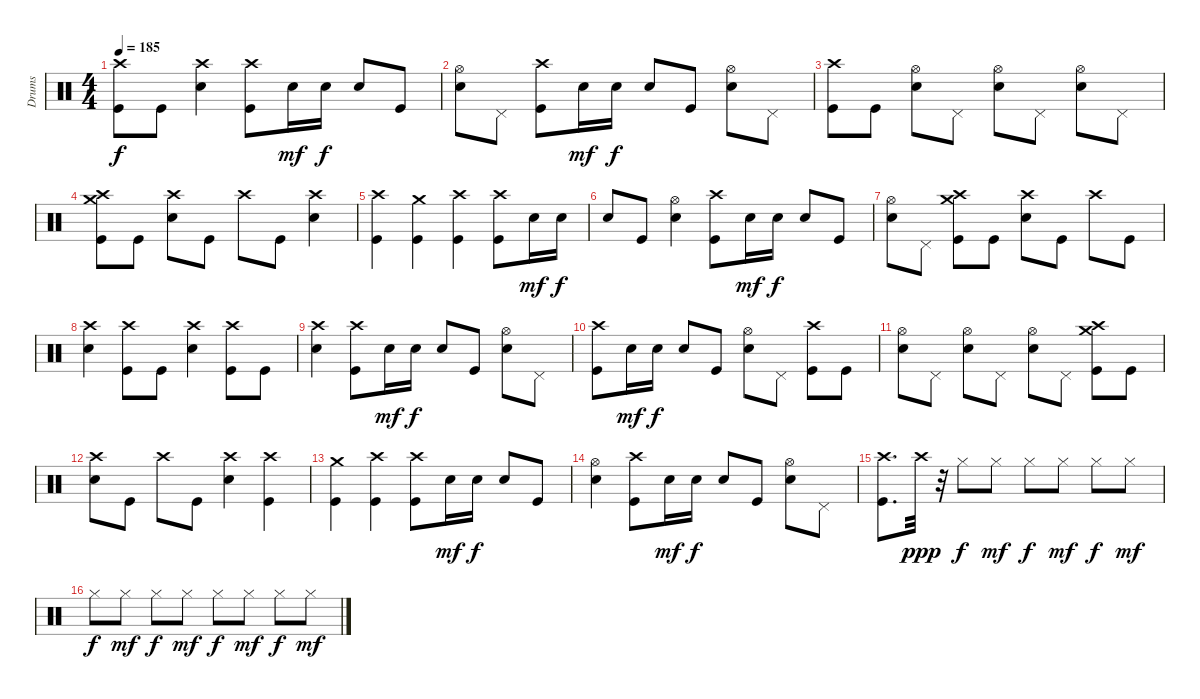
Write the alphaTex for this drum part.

\track ("Drums" "Drums") {instrument percussion}
\staff {score}
\articulation defaults
\ts (4 4)
\tempo 185
\clef neutral
\ks c
("Kick (hit)" "Crash high (hit)").8{dy f} "Kick (hit)".8 ("Electric Snare (hit)" "Crash high (hit)").4 ("Kick (hit)" "Crash high (hit)").8 "Electric Snare (hit)".16{dy mf} "Electric Snare (hit)".16{dy f} "Electric Snare (hit)".8 "Kick (hit)".8 |
("Electric Snare (hit)" "Hi-Hat (open)").8 "Pedal Hi-Hat (hit)".8 ("Kick (hit)" "Crash high (hit)").8 "Electric Snare (hit)".16{dy mf} "Electric Snare (hit)".16{dy f} "Electric Snare (hit)".8 "Kick (hit)".8 ("Electric Snare (hit)" "Hi-Hat (open)").8 "Pedal Hi-Hat (hit)".8 |
("Kick (hit)" "Crash high (hit)").8 "Kick (hit)".8 ("Electric Snare (hit)" "Hi-Hat (open)").8 "Pedal Hi-Hat (hit)".8 ("Electric Snare (hit)" "Hi-Hat (open)").8 "Pedal Hi-Hat (hit)".8 ("Electric Snare (hit)" "Hi-Hat (open)").8 "Pedal Hi-Hat (hit)".8 |
("Kick (hit)" "Crash high (hit)" "Crash medium (hit)").8 "Kick (hit)".8 ("Electric Snare (hit)" "Crash high (hit)").8 "Kick (hit)".8 "Crash high (hit)".8 "Kick (hit)".8 ("Electric Snare (hit)" "Crash high (hit)").4 |
("Kick (hit)" "Crash high (hit)").4 ("Kick (hit)" "Crash medium (hit)").4 ("Kick (hit)" "Crash high (hit)").4 ("Kick (hit)" "Crash high (hit)").8 "Electric Snare (hit)".16{dy mf} "Electric Snare (hit)".16{dy f} |
"Electric Snare (hit)".8 "Kick (hit)".8 ("Electric Snare (hit)" "Hi-Hat (open)").4 ("Kick (hit)" "Crash high (hit)").8 "Electric Snare (hit)".16{dy mf} "Electric Snare (hit)".16{dy f} "Electric Snare (hit)".8 "Kick (hit)".8 |
("Electric Snare (hit)" "Hi-Hat (open)").8 "Pedal Hi-Hat (hit)".8 ("Kick (hit)" "Crash high (hit)" "Crash medium (hit)").8 "Kick (hit)".8 ("Electric Snare (hit)" "Crash high (hit)").8 "Kick (hit)".8 "Crash high (hit)".8 "Kick (hit)".8 |
("Electric Snare (hit)" "Crash high (hit)").4 ("Kick (hit)" "Crash high (hit)").8 "Kick (hit)".8 ("Electric Snare (hit)" "Crash high (hit)").4 ("Kick (hit)" "Crash high (hit)").8 "Kick (hit)".8 |
("Electric Snare (hit)" "Crash high (hit)").4 ("Kick (hit)" "Crash high (hit)").8 "Electric Snare (hit)".16{dy mf} "Electric Snare (hit)".16{dy f} "Electric Snare (hit)".8 "Kick (hit)".8 ("Electric Snare (hit)" "Hi-Hat (open)").8 "Pedal Hi-Hat (hit)".8 |
("Kick (hit)" "Crash high (hit)").8 "Electric Snare (hit)".16{dy mf} "Electric Snare (hit)".16{dy f} "Electric Snare (hit)".8 "Kick (hit)".8 ("Electric Snare (hit)" "Hi-Hat (open)").8 "Pedal Hi-Hat (hit)".8 ("Kick (hit)" "Crash high (hit)").8 "Kick (hit)".8 |
("Electric Snare (hit)" "Hi-Hat (open)").8 "Pedal Hi-Hat (hit)".8 ("Electric Snare (hit)" "Hi-Hat (open)").8 "Pedal Hi-Hat (hit)".8 ("Electric Snare (hit)" "Hi-Hat (open)").8 "Pedal Hi-Hat (hit)".8 ("Kick (hit)" "Crash high (hit)" "Crash medium (hit)").8 "Kick (hit)".8 |
("Electric Snare (hit)" "Crash high (hit)").8 "Kick (hit)".8 "Crash high (hit)".8 "Kick (hit)".8 ("Electric Snare (hit)" "Crash high (hit)").4 ("Kick (hit)" "Crash high (hit)").4 |
("Kick (hit)" "Crash medium (hit)").4 ("Kick (hit)" "Crash high (hit)").4 ("Kick (hit)" "Crash high (hit)").8 "Electric Snare (hit)".16{dy mf} "Electric Snare (hit)".16{dy f} "Electric Snare (hit)".8 "Kick (hit)".8 |
("Electric Snare (hit)" "Hi-Hat (open)").4 ("Kick (hit)" "Crash high (hit)").8 "Electric Snare (hit)".16{dy mf} "Electric Snare (hit)".16{dy f} "Electric Snare (hit)".8 "Kick (hit)".8 ("Electric Snare (hit)" "Hi-Hat (open)").8 "Pedal Hi-Hat (hit)".8 |
("Kick (hit)" "Crash high (hit)").8{d} "Crash high (hit)".32{dy ppp} r.32 "Hi-Hat (closed)".8{dy f} "Hi-Hat (closed)".8{dy mf} "Hi-Hat (closed)".8{dy f} "Hi-Hat (closed)".8{dy mf} "Hi-Hat (closed)".8{dy f} "Hi-Hat (closed)".8{dy mf} |
"Hi-Hat (closed)".8{dy f} "Hi-Hat (closed)".8{dy mf} "Hi-Hat (closed)".8{dy f} "Hi-Hat (closed)".8{dy mf} "Hi-Hat (closed)".8{dy f} "Hi-Hat (closed)".8{dy mf} "Hi-Hat (closed)".8{dy f} "Hi-Hat (closed)".8{dy mf}
